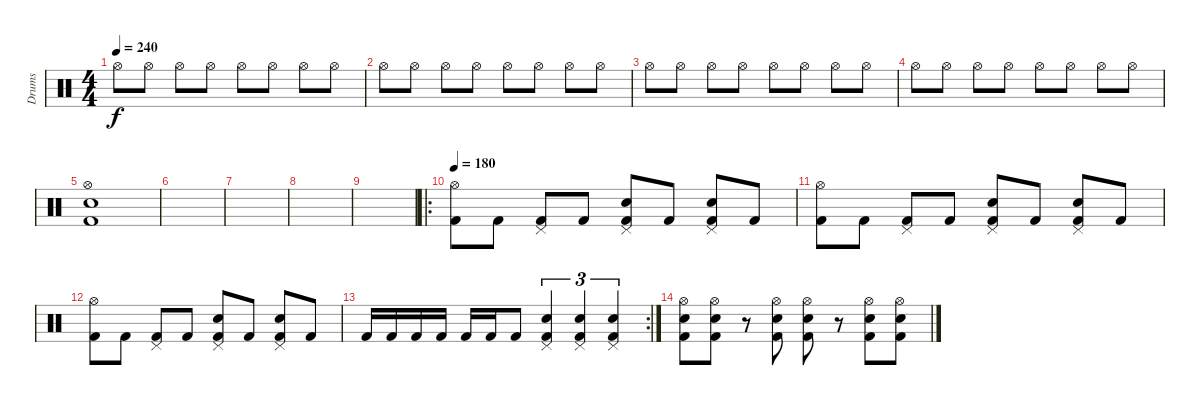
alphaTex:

\track ("Drums" "Drums") {instrument percussion}
\staff {score}
\articulation defaults
\ts (4 4)
\tempo 240
\clef neutral
\ks c "Hi-Hat (open)".8{dy f} "Hi-Hat (open)".8 "Hi-Hat (open)".8 "Hi-Hat (open)".8 "Hi-Hat (open)".8 "Hi-Hat (open)".8 "Hi-Hat (open)".8 "Hi-Hat (open)".8
|
"Hi-Hat (open)".8 "Hi-Hat (open)".8 "Hi-Hat (open)".8 "Hi-Hat (open)".8 "Hi-Hat (open)".8 "Hi-Hat (open)".8 "Hi-Hat (open)".8 "Hi-Hat (open)".8 |
"Hi-Hat (open)".8 "Hi-Hat (open)".8 "Hi-Hat (open)".8 "Hi-Hat (open)".8 "Hi-Hat (open)".8 "Hi-Hat (open)".8 "Hi-Hat (open)".8 "Hi-Hat (open)".8 |
"Hi-Hat (open)".8 "Hi-Hat (open)".8 "Hi-Hat (open)".8 "Hi-Hat (open)".8 "Hi-Hat (open)".8 "Hi-Hat (open)".8 "Hi-Hat (open)".8 "Hi-Hat (open)".8 |
("Hi-Hat (open)" "Snare (hit) 2" "Kick (hit) 2").1 |
|
|
|
|
\ro
\tempo 180
("Hi-Hat (open)" "Kick (hit) 2").8 "Kick (hit) 2".8 ("Pedal Hi-Hat (hit)" "Kick (hit) 2").8 "Kick (hit) 2".8 ("Pedal Hi-Hat (hit)" "Snare (hit) 2" "Kick (hit) 2").8 "Kick (hit) 2".8 ("Pedal Hi-Hat (hit)" "Snare (hit) 2" "Kick (hit) 2").8 "Kick (hit) 2".8 |
("Hi-Hat (open)" "Kick (hit) 2").8 "Kick (hit) 2".8 ("Pedal Hi-Hat (hit)" "Kick (hit) 2").8 "Kick (hit) 2".8 ("Pedal Hi-Hat (hit)" "Snare (hit) 2" "Kick (hit) 2").8 "Kick (hit) 2".8 ("Pedal Hi-Hat (hit)" "Snare (hit) 2" "Kick (hit) 2").8 "Kick (hit) 2".8 |
("Hi-Hat (open)" "Kick (hit) 2").8 "Kick (hit) 2".8 ("Pedal Hi-Hat (hit)" "Kick (hit) 2").8 "Kick (hit) 2".8 ("Pedal Hi-Hat (hit)" "Snare (hit) 2" "Kick (hit) 2").8 "Kick (hit) 2".8 ("Pedal Hi-Hat (hit)" "Snare (hit) 2" "Kick (hit) 2").8 "Kick (hit) 2".8 |
\rc 2 "Kick (hit) 2".16 "Kick (hit) 2".16 "Kick (hit) 2".16 "Kick (hit) 2".16 "Kick (hit) 2".16 "Kick (hit) 2".16 "Kick (hit) 2".8
("Pedal Hi-Hat (hit)" "Snare (hit) 2" "Kick (hit) 2").4{tu (3 2)} ("Pedal Hi-Hat (hit)" "Snare (hit) 2" "Kick (hit) 2").4{tu (3 2)} ("Pedal Hi-Hat (hit)" "Snare (hit) 2" "Kick (hit) 2").4{tu (3 2)} |
("Hi-Hat (open)" "Snare (hit) 2" "Kick (hit) 2").8 ("Hi-Hat (open)" "Snare (hit) 2" "Kick (hit) 2").8 r.8 ("Hi-Hat (open)" "Snare (hit) 2" "Kick (hit) 2").8 ("Hi-Hat (open)" "Snare (hit) 2" "Kick (hit) 2").8 r.8 ("Hi-Hat (open)" "Snare (hit) 2" "Kick (hit) 2").8 ("Hi-Hat (open)" "Snare (hit) 2" "Kick (hit) 2").8
